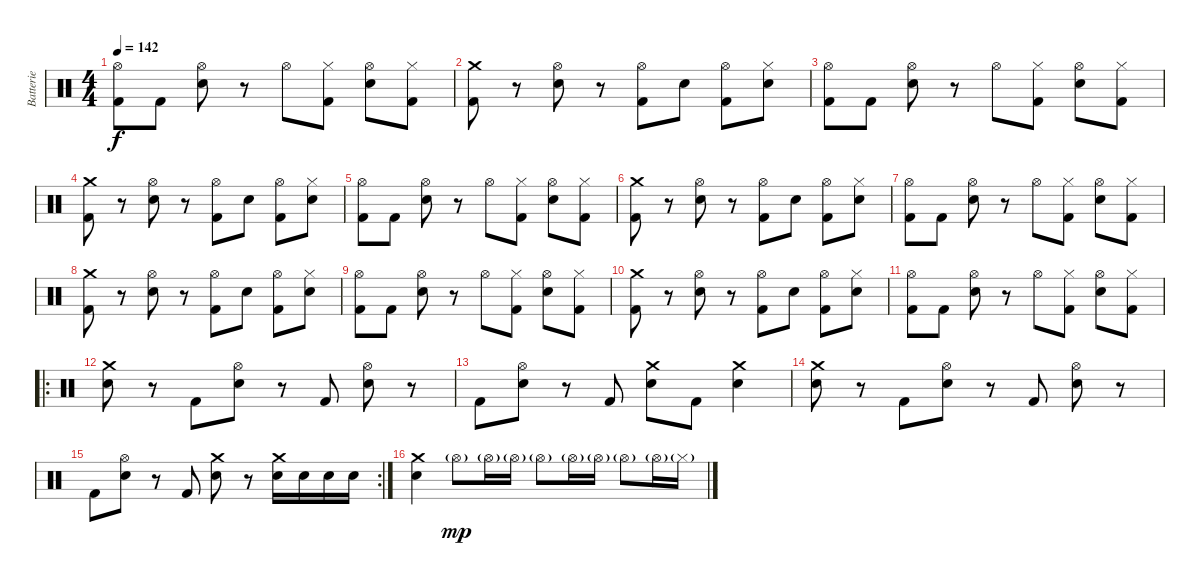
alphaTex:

\track ("Batterie" "Batterie") {instrument percussion}
\staff {score}
\articulation defaults
\ts (4 4)
\tempo 142
\clef neutral
\ks c
("Kick (hit) 2" "Hi-Hat (open)").8{dy f} "Kick (hit) 2".8 ("Electric Snare (hit)" "Hi-Hat (open)").8 r.8 "Hi-Hat (open)".8 ("Kick (hit) 2" "Hi-Hat (closed)").8 ("Electric Snare (hit)" "Hi-Hat (open)").8 ("Kick (hit) 2" "Hi-Hat (closed)").8 |
("Kick (hit) 2" "Crash medium (hit)").8 r.8 ("Electric Snare (hit)" "Hi-Hat (open)").8 r.8 ("Kick (hit) 2" "Hi-Hat (open)").8 "Electric Snare (hit)".8 ("Kick (hit) 2" "Hi-Hat (open)").8 ("Electric Snare (hit)" "Hi-Hat (closed)").8 |
("Kick (hit) 2" "Hi-Hat (open)").8 "Kick (hit) 2".8 ("Electric Snare (hit)" "Hi-Hat (open)").8 r.8 "Hi-Hat (open)".8 ("Kick (hit) 2" "Hi-Hat (closed)").8 ("Electric Snare (hit)" "Hi-Hat (open)").8 ("Kick (hit) 2" "Hi-Hat (closed)").8 |
("Kick (hit) 2" "Crash medium (hit)").8 r.8 ("Electric Snare (hit)" "Hi-Hat (open)").8 r.8 ("Kick (hit) 2" "Hi-Hat (open)").8 "Electric Snare (hit)".8 ("Kick (hit) 2" "Hi-Hat (open)").8 ("Electric Snare (hit)" "Hi-Hat (closed)").8 |
("Kick (hit) 2" "Hi-Hat (open)").8 "Kick (hit) 2".8 ("Electric Snare (hit)" "Hi-Hat (open)").8 r.8 "Hi-Hat (open)".8 ("Kick (hit) 2" "Hi-Hat (closed)").8 ("Electric Snare (hit)" "Hi-Hat (open)").8 ("Kick (hit) 2" "Hi-Hat (closed)").8 |
("Kick (hit) 2" "Crash medium (hit)").8 r.8 ("Electric Snare (hit)" "Hi-Hat (open)").8 r.8 ("Kick (hit) 2" "Hi-Hat (open)").8 "Electric Snare (hit)".8 ("Kick (hit) 2" "Hi-Hat (open)").8 ("Electric Snare (hit)" "Hi-Hat (closed)").8 |
("Kick (hit) 2" "Hi-Hat (open)").8 "Kick (hit) 2".8 ("Electric Snare (hit)" "Hi-Hat (open)").8 r.8 "Hi-Hat (open)".8 ("Kick (hit) 2" "Hi-Hat (closed)").8 ("Electric Snare (hit)" "Hi-Hat (open)").8 ("Kick (hit) 2" "Hi-Hat (closed)").8 |
("Kick (hit) 2" "Crash medium (hit)").8 r.8 ("Electric Snare (hit)" "Hi-Hat (open)").8 r.8 ("Kick (hit) 2" "Hi-Hat (open)").8 "Electric Snare (hit)".8 ("Kick (hit) 2" "Hi-Hat (open)").8 ("Electric Snare (hit)" "Hi-Hat (closed)").8 |
("Kick (hit) 2" "Hi-Hat (open)").8 "Kick (hit) 2".8 ("Electric Snare (hit)" "Hi-Hat (open)").8 r.8 "Hi-Hat (open)".8 ("Kick (hit) 2" "Hi-Hat (closed)").8 ("Electric Snare (hit)" "Hi-Hat (open)").8 ("Kick (hit) 2" "Hi-Hat (closed)").8 |
("Kick (hit) 2" "Crash medium (hit)").8 r.8 ("Electric Snare (hit)" "Hi-Hat (open)").8 r.8 ("Kick (hit) 2" "Hi-Hat (open)").8 "Electric Snare (hit)".8 ("Kick (hit) 2" "Hi-Hat (open)").8 ("Electric Snare (hit)" "Hi-Hat (closed)").8 |
("Kick (hit) 2" "Hi-Hat (open)").8 "Kick (hit) 2".8 ("Electric Snare (hit)" "Hi-Hat (open)").8 r.8 "Hi-Hat (open)".8 ("Kick (hit) 2" "Hi-Hat (closed)").8 ("Electric Snare (hit)" "Hi-Hat (open)").8 ("Kick (hit) 2" "Hi-Hat (closed)").8 |
\ro
("Electric Snare (hit)" "Crash medium (hit)").8 r.8 "Kick (hit) 2".8 ("Electric Snare (hit)" "Hi-Hat (open)").8 r.8 "Kick (hit) 2".8 ("Electric Snare (hit)" "Hi-Hat (open)").8 r.8 |
"Kick (hit) 2".8 ("Electric Snare (hit)" "Hi-Hat (open)").8 r.8 "Kick (hit) 2".8 ("Electric Snare (hit)" "Crash medium (hit)").8 "Kick (hit) 2".8 ("Electric Snare (hit)" "Crash medium (hit)").4 |
("Electric Snare (hit)" "Crash medium (hit)").8 r.8 "Kick (hit) 2".8 ("Electric Snare (hit)" "Hi-Hat (open)").8 r.8 "Kick (hit) 2".8 ("Electric Snare (hit)" "Hi-Hat (open)").8 r.8 |
\rc 2 "Kick (hit) 2".8
("Electric Snare (hit)" "Hi-Hat (open)").8 r.8 "Kick (hit) 2".8 ("Electric Snare (hit)" "Crash medium (hit)").8 r.8 ("Electric Snare (hit)" "Crash medium (hit)").16 "Electric Snare (hit)".16 "Electric Snare (hit)".16 "Electric Snare (hit)".16 |
("Electric Snare (hit)" "Crash medium (hit)").4 "Hi-Hat (open)"{g}.8{dy mp} "Hi-Hat (open)"{g}.16 "Hi-Hat (open)"{g}.16 "Hi-Hat (open)"{g}.8 "Hi-Hat (open)"{g}.16 "Hi-Hat (open)"{g}.16 "Hi-Hat (open)"{g}.8 "Hi-Hat (open)"{g}.16 "Hi-Hat (closed)"{g}.16
